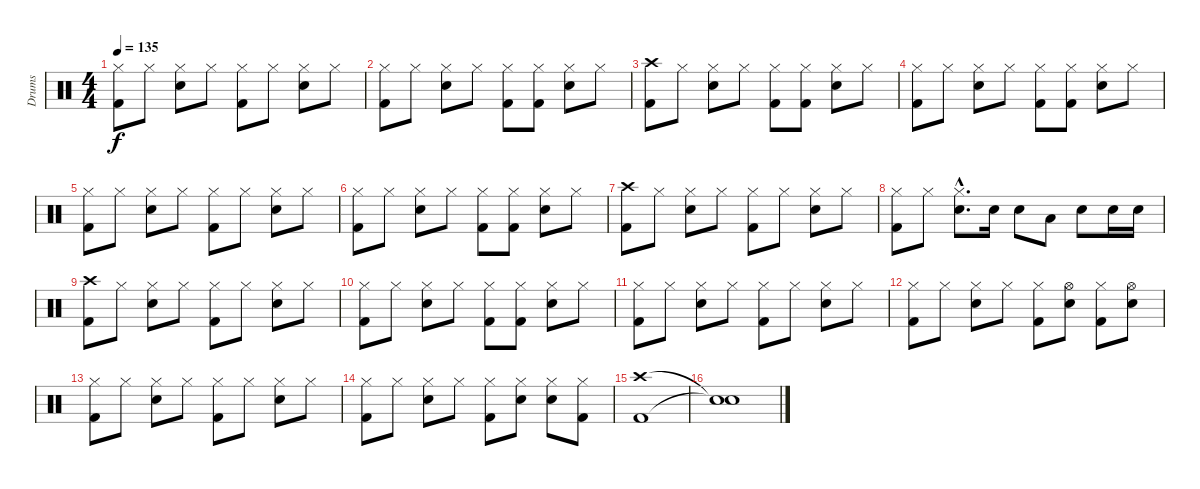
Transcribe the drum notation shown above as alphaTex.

\track ("Drums" "Drums") {instrument percussion}
\staff {score}
\articulation defaults
\ts (4 4)
\tempo 135
\clef neutral
\ks c
("Hi-Hat (closed)" "Kick (hit) 2").8{dy f} "Hi-Hat (closed)".8 ("Hi-Hat (closed)" "Electric Snare (hit)").8 "Hi-Hat (closed)".8 ("Hi-Hat (closed)" "Kick (hit) 2").8 "Hi-Hat (closed)".8 ("Hi-Hat (closed)" "Electric Snare (hit)").8 "Hi-Hat (closed)".8 |
("Hi-Hat (closed)" "Kick (hit) 2").8 "Hi-Hat (closed)".8 ("Hi-Hat (closed)" "Electric Snare (hit)").8 "Hi-Hat (closed)".8 ("Hi-Hat (closed)" "Kick (hit) 2").8 ("Hi-Hat (closed)" "Kick (hit) 2").8 ("Hi-Hat (closed)" "Electric Snare (hit)").8 "Hi-Hat (closed)".8 |
("Crash high (hit)" "Kick (hit) 2").8 "Hi-Hat (closed)".8 ("Hi-Hat (closed)" "Electric Snare (hit)").8 "Hi-Hat (closed)".8 ("Hi-Hat (closed)" "Kick (hit) 2").8 ("Hi-Hat (closed)" "Kick (hit) 2").8 ("Hi-Hat (closed)" "Electric Snare (hit)").8 "Hi-Hat (closed)".8 |
("Hi-Hat (closed)" "Kick (hit) 2").8 "Hi-Hat (closed)".8 ("Hi-Hat (closed)" "Electric Snare (hit)").8 "Hi-Hat (closed)".8 ("Hi-Hat (closed)" "Kick (hit) 2").8 ("Hi-Hat (closed)" "Kick (hit) 2").8 ("Hi-Hat (closed)" "Electric Snare (hit)").8 "Hi-Hat (closed)".8 |
("Hi-Hat (closed)" "Kick (hit) 2").8 "Hi-Hat (closed)".8 ("Hi-Hat (closed)" "Electric Snare (hit)").8 "Hi-Hat (closed)".8 ("Hi-Hat (closed)" "Kick (hit) 2").8 "Hi-Hat (closed)".8 ("Hi-Hat (closed)" "Electric Snare (hit)").8 "Hi-Hat (closed)".8 |
("Hi-Hat (closed)" "Kick (hit) 2").8 "Hi-Hat (closed)".8 ("Hi-Hat (closed)" "Electric Snare (hit)").8 "Hi-Hat (closed)".8 ("Hi-Hat (closed)" "Kick (hit) 2").8 ("Hi-Hat (closed)" "Kick (hit) 2").8 ("Hi-Hat (closed)" "Electric Snare (hit)").8 "Hi-Hat (closed)".8 |
("Crash high (hit)" "Kick (hit) 2").8 "Hi-Hat (closed)".8 ("Hi-Hat (closed)" "Electric Snare (hit)").8 "Hi-Hat (closed)".8 ("Hi-Hat (closed)" "Kick (hit) 2").8 "Hi-Hat (closed)".8 ("Hi-Hat (closed)" "Electric Snare (hit)").8 "Hi-Hat (closed)".8 |
("Hi-Hat (closed)" "Kick (hit) 2").8 "Hi-Hat (closed)".8 ("Hi-Hat (closed)"{hac} "Electric Snare (hit)"{hac}).8{d} "Electric Snare (hit)".16 "Electric Snare (hit)".8 "Low Tom (hit)".8 "Electric Snare (hit)".8 "Electric Snare (hit)".16 "Electric Snare (hit)".16 |
("Crash high (hit)" "Kick (hit) 2").8 "Hi-Hat (closed)".8 ("Hi-Hat (closed)" "Electric Snare (hit)").8 "Hi-Hat (closed)".8 ("Hi-Hat (closed)" "Kick (hit) 2").8 "Hi-Hat (closed)".8 ("Hi-Hat (closed)" "Electric Snare (hit)").8 "Hi-Hat (closed)".8 |
("Hi-Hat (closed)" "Kick (hit) 2").8 "Hi-Hat (closed)".8 ("Hi-Hat (closed)" "Electric Snare (hit)").8 "Hi-Hat (closed)".8 ("Hi-Hat (closed)" "Kick (hit) 2").8 ("Hi-Hat (closed)" "Kick (hit) 2").8 ("Hi-Hat (closed)" "Electric Snare (hit)").8 "Hi-Hat (closed)".8 |
("Hi-Hat (closed)" "Kick (hit) 2").8 "Hi-Hat (closed)".8 ("Hi-Hat (closed)" "Electric Snare (hit)").8 "Hi-Hat (closed)".8 ("Hi-Hat (closed)" "Kick (hit) 2").8 "Hi-Hat (closed)".8 ("Hi-Hat (closed)" "Electric Snare (hit)").8 "Hi-Hat (closed)".8 |
("Hi-Hat (closed)" "Kick (hit) 2").8 "Hi-Hat (closed)".8 ("Hi-Hat (closed)" "Electric Snare (hit)").8 "Hi-Hat (closed)".8 ("Hi-Hat (closed)" "Kick (hit) 2").8 ("Hi-Hat (open)" "Electric Snare (hit)").8 ("Hi-Hat (closed)" "Kick (hit) 2").8 ("Hi-Hat (open)" "Electric Snare (hit)").8 |
("Hi-Hat (closed)" "Kick (hit) 2").8 "Hi-Hat (closed)".8 ("Hi-Hat (closed)" "Electric Snare (hit)").8 "Hi-Hat (closed)".8 ("Hi-Hat (closed)" "Kick (hit) 2").8 "Hi-Hat (closed)".8 ("Hi-Hat (closed)" "Electric Snare (hit)").8 "Hi-Hat (closed)".8 |
("Hi-Hat (closed)" "Kick (hit) 2").8 "Hi-Hat (closed)".8 ("Hi-Hat (closed)" "Electric Snare (hit)").8 "Hi-Hat (closed)".8 ("Hi-Hat (closed)" "Kick (hit) 2").8 ("Hi-Hat (closed)" "Electric Snare (hit)").8 ("Hi-Hat (closed)" "Electric Snare (hit)").8 ("Hi-Hat (closed)" "Kick (hit) 2").8 |
("Crash high (hit)" "Kick (hit) 2").1 |
("Snare (hit)"{t} "Snare (hit)"{t}).1
